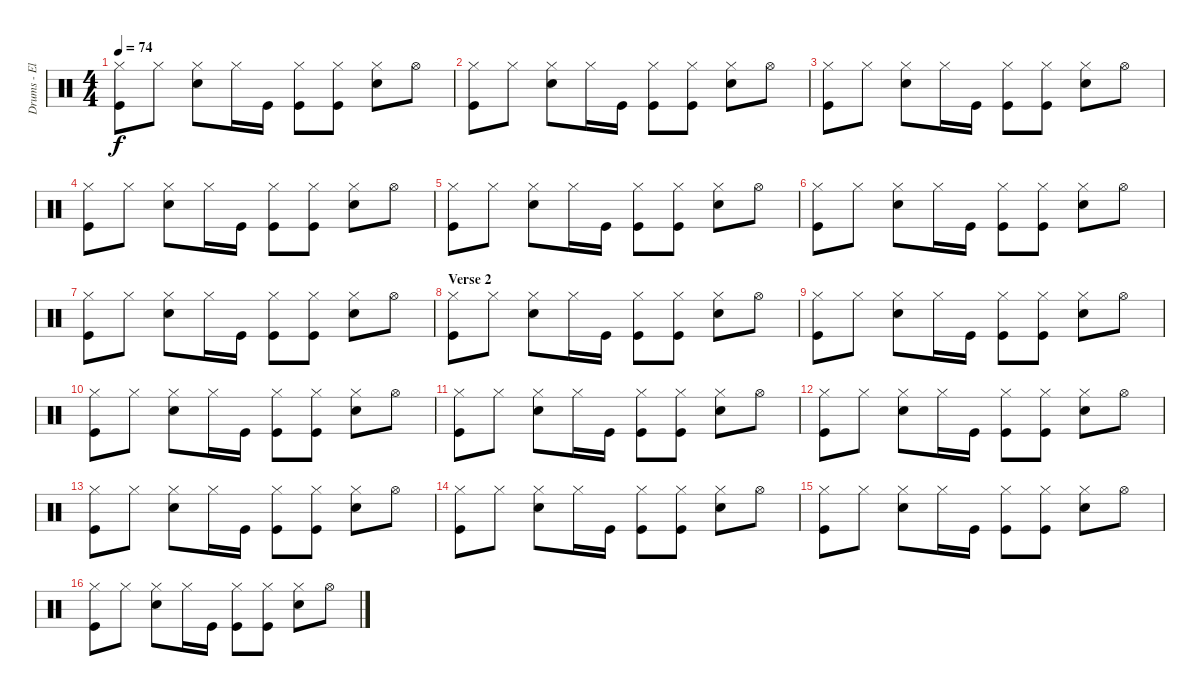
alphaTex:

\track ("Drums - Electronic Kit then Real Drums!!" "Drums - El") {instrument percussion}
\staff {score}
\articulation defaults
\ts (4 4)
\tempo 74
\clef neutral
\ks c
("Hi-Hat (closed)" "Kick (hit)").8{dy f} "Hi-Hat (closed)".8 ("Hi-Hat (closed)" "Snare (hit) 2").8 "Hi-Hat (closed)".16 "Kick (hit)".16 ("Hi-Hat (closed)" "Kick (hit)").8 ("Hi-Hat (closed)" "Kick (hit)").8 ("Hi-Hat (closed)" "Snare (hit) 2").8 "Hi-Hat (open)".8 |
("Hi-Hat (closed)" "Kick (hit)").8 "Hi-Hat (closed)".8 ("Hi-Hat (closed)" "Snare (hit) 2").8 "Hi-Hat (closed)".16 "Kick (hit)".16 ("Hi-Hat (closed)" "Kick (hit)").8 ("Hi-Hat (closed)" "Kick (hit)").8 ("Hi-Hat (closed)" "Snare (hit) 2").8 "Hi-Hat (open)".8 |
("Hi-Hat (closed)" "Kick (hit)").8 "Hi-Hat (closed)".8 ("Hi-Hat (closed)" "Snare (hit) 2").8 "Hi-Hat (closed)".16 "Kick (hit)".16 ("Hi-Hat (closed)" "Kick (hit)").8 ("Hi-Hat (closed)" "Kick (hit)").8 ("Hi-Hat (closed)" "Snare (hit) 2").8 "Hi-Hat (open)".8 |
("Hi-Hat (closed)" "Kick (hit)").8 "Hi-Hat (closed)".8 ("Hi-Hat (closed)" "Snare (hit) 2").8 "Hi-Hat (closed)".16 "Kick (hit)".16 ("Hi-Hat (closed)" "Kick (hit)").8 ("Hi-Hat (closed)" "Kick (hit)").8 ("Hi-Hat (closed)" "Snare (hit) 2").8 "Hi-Hat (open)".8 |
("Hi-Hat (closed)" "Kick (hit)").8 "Hi-Hat (closed)".8 ("Hi-Hat (closed)" "Snare (hit) 2").8 "Hi-Hat (closed)".16 "Kick (hit)".16 ("Hi-Hat (closed)" "Kick (hit)").8 ("Hi-Hat (closed)" "Kick (hit)").8 ("Hi-Hat (closed)" "Snare (hit) 2").8 "Hi-Hat (open)".8 |
("Hi-Hat (closed)" "Kick (hit)").8 "Hi-Hat (closed)".8 ("Hi-Hat (closed)" "Snare (hit) 2").8 "Hi-Hat (closed)".16 "Kick (hit)".16 ("Hi-Hat (closed)" "Kick (hit)").8 ("Hi-Hat (closed)" "Kick (hit)").8 ("Hi-Hat (closed)" "Snare (hit) 2").8 "Hi-Hat (open)".8 |
("Hi-Hat (closed)" "Kick (hit)").8 "Hi-Hat (closed)".8 ("Hi-Hat (closed)" "Snare (hit) 2").8 "Hi-Hat (closed)".16 "Kick (hit)".16 ("Hi-Hat (closed)" "Kick (hit)").8 ("Hi-Hat (closed)" "Kick (hit)").8 ("Hi-Hat (closed)" "Snare (hit) 2").8 "Hi-Hat (open)".8 |
\section ("" "Verse 2")
("Hi-Hat (closed)" "Kick (hit)").8 "Hi-Hat (closed)".8 ("Hi-Hat (closed)" "Snare (hit) 2").8 "Hi-Hat (closed)".16 "Kick (hit)".16 ("Hi-Hat (closed)" "Kick (hit)").8 ("Hi-Hat (closed)" "Kick (hit)").8 ("Hi-Hat (closed)" "Snare (hit) 2").8 "Hi-Hat (open)".8 |
("Hi-Hat (closed)" "Kick (hit)").8 "Hi-Hat (closed)".8 ("Hi-Hat (closed)" "Snare (hit) 2").8 "Hi-Hat (closed)".16 "Kick (hit)".16 ("Hi-Hat (closed)" "Kick (hit)").8 ("Hi-Hat (closed)" "Kick (hit)").8 ("Hi-Hat (closed)" "Snare (hit) 2").8 "Hi-Hat (open)".8 |
("Hi-Hat (closed)" "Kick (hit)").8 "Hi-Hat (closed)".8 ("Hi-Hat (closed)" "Snare (hit) 2").8 "Hi-Hat (closed)".16 "Kick (hit)".16 ("Hi-Hat (closed)" "Kick (hit)").8 ("Hi-Hat (closed)" "Kick (hit)").8 ("Hi-Hat (closed)" "Snare (hit) 2").8 "Hi-Hat (open)".8 |
("Hi-Hat (closed)" "Kick (hit)").8 "Hi-Hat (closed)".8 ("Hi-Hat (closed)" "Snare (hit) 2").8 "Hi-Hat (closed)".16 "Kick (hit)".16 ("Hi-Hat (closed)" "Kick (hit)").8 ("Hi-Hat (closed)" "Kick (hit)").8 ("Hi-Hat (closed)" "Snare (hit) 2").8 "Hi-Hat (open)".8 |
("Hi-Hat (closed)" "Kick (hit)").8 "Hi-Hat (closed)".8 ("Hi-Hat (closed)" "Snare (hit) 2").8 "Hi-Hat (closed)".16 "Kick (hit)".16 ("Hi-Hat (closed)" "Kick (hit)").8 ("Hi-Hat (closed)" "Kick (hit)").8 ("Hi-Hat (closed)" "Snare (hit) 2").8 "Hi-Hat (open)".8 |
("Hi-Hat (closed)" "Kick (hit)").8 "Hi-Hat (closed)".8 ("Hi-Hat (closed)" "Snare (hit) 2").8 "Hi-Hat (closed)".16 "Kick (hit)".16 ("Hi-Hat (closed)" "Kick (hit)").8 ("Hi-Hat (closed)" "Kick (hit)").8 ("Hi-Hat (closed)" "Snare (hit) 2").8 "Hi-Hat (open)".8 |
("Hi-Hat (closed)" "Kick (hit)").8 "Hi-Hat (closed)".8 ("Hi-Hat (closed)" "Snare (hit) 2").8 "Hi-Hat (closed)".16 "Kick (hit)".16 ("Hi-Hat (closed)" "Kick (hit)").8 ("Hi-Hat (closed)" "Kick (hit)").8 ("Hi-Hat (closed)" "Snare (hit) 2").8 "Hi-Hat (open)".8 |
("Hi-Hat (closed)" "Kick (hit)").8 "Hi-Hat (closed)".8 ("Hi-Hat (closed)" "Snare (hit) 2").8 "Hi-Hat (closed)".16 "Kick (hit)".16 ("Hi-Hat (closed)" "Kick (hit)").8 ("Hi-Hat (closed)" "Kick (hit)").8 ("Hi-Hat (closed)" "Snare (hit) 2").8 "Hi-Hat (open)".8 |
("Hi-Hat (closed)" "Kick (hit)").8 "Hi-Hat (closed)".8 ("Hi-Hat (closed)" "Snare (hit) 2").8 "Hi-Hat (closed)".16 "Kick (hit)".16 ("Hi-Hat (closed)" "Kick (hit)").8 ("Hi-Hat (closed)" "Kick (hit)").8 ("Hi-Hat (closed)" "Snare (hit) 2").8 "Hi-Hat (open)".8
